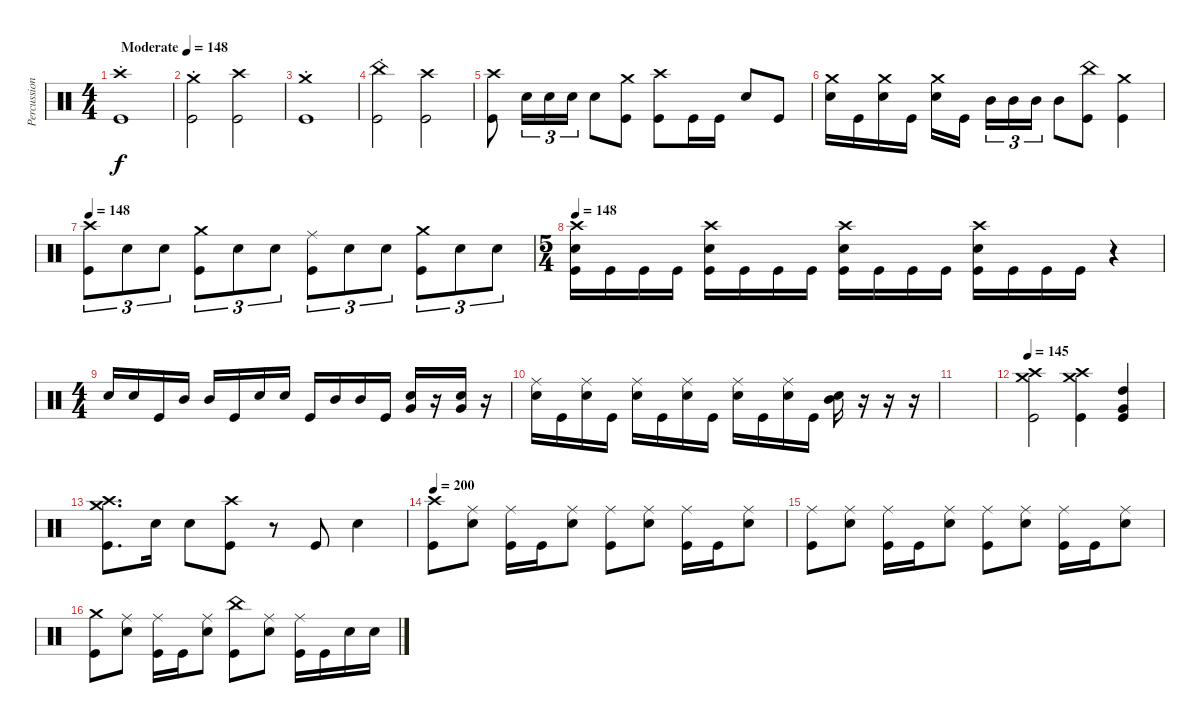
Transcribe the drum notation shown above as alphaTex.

\track ("Percussion" "Percussion") {instrument percussion}
\staff {score}
\articulation defaults
\ts (4 4)
\tempo (148 "Moderate")
\clef neutral
\ks c
("Crash high (hit)"{st} "Kick (hit)"{st}).1{dy f} |
("Crash medium (hit)"{st} "Kick (hit)"{st}).2 ("Crash high (hit)" "Kick (hit)").2 |
("Crash medium (hit)"{st} "Kick (hit)"{st}).1 |
("China (hit)"{st} "Kick (hit)"{st}).2 ("Crash high (hit)" "Kick (hit)").2 |
("Crash high (hit)" "Kick (hit)").8 "Snare (hit) 2".16{tu (3 2)} "Snare (hit) 2".16{tu (3 2)} "Snare (hit) 2".16{tu (3 2)} "Snare (hit) 2".8 ("Crash medium (hit)" "Kick (hit)").8 ("Crash high (hit)" "Kick (hit)").8 "Kick (hit)".16 "Kick (hit)".16 "Snare (hit) 2".8 "Kick (hit)".8 |
("Crash medium (hit)" "Snare (hit) 2").16 "Kick (hit)".16 ("Crash medium (hit)" "Snare (hit) 2").16 "Kick (hit)".16 ("Crash medium (hit)" "Snare (hit) 2").16 "Kick (hit)".16{beam splitsecondary} "Mid Tom (hit)".16{tu (3 2)} "Mid Tom (hit)".16{tu (3 2)} "Mid Tom (hit)".16{tu (3 2)} "Mid Tom (hit)".8 ("China (hit)" "Kick (hit)").8 ("Crash medium (hit)" "Kick (hit)").4 |
\tempo 148
("Crash high (hit)" "Kick (hit)").8{tu (3 2)} "Snare (hit) 2".8{tu (3 2)} "Snare (hit) 2".8{tu (3 2)} ("Crash medium (hit)" "Kick (hit)").8{tu (3 2)} "Snare (hit) 2".8{tu (3 2)} "Snare (hit) 2".8{tu (3 2)} ("Ride (middle)" "Kick (hit)").8{tu (3 2)} "Snare (hit) 2".8{tu (3 2)} "Snare (hit) 2".8{tu (3 2)} ("Crash medium (hit)" "Kick (hit)").8{tu (3 2)} "Snare (hit) 2".8{tu (3 2)} "Snare (hit) 2".8{tu (3 2)} |
\ts (5 4)
\tempo 148
("Crash high (hit)" "Snare (hit) 2" "Kick (hit)").16 "Kick (hit)".16 "Kick (hit)".16 "Kick (hit)".16 ("Crash high (hit)" "Snare (hit) 2" "Kick (hit)").16 "Kick (hit)".16 "Kick (hit)".16 "Kick (hit)".16 ("Crash high (hit)" "Snare (hit) 2" "Kick (hit)").16 "Kick (hit)".16 "Kick (hit)".16 "Kick (hit)".16 ("Crash high (hit)" "Snare (hit) 2" "Kick (hit)").16 "Kick (hit)".16 "Kick (hit)".16 "Kick (hit)".16 r.4 |
\ts (4 4)
"Snare (hit) 2".16 "Snare (hit) 2".16 "Kick (hit)".16 "Mid Tom (hit)".16 "Mid Tom (hit)".16 "Kick (hit)".16 "Snare (hit) 2".16 "Snare (hit) 2".16 "Kick (hit)".16 "Mid Tom (hit)".16 "Mid Tom (hit)".16 "Kick (hit)".16 ("Very Low Tom (hit)" "Snare (hit) 2").16 r.16 ("Very Low Tom (hit)" "Snare (hit) 2").16 r.16 |
("Ride (middle)" "Snare (hit) 2").16 "Kick (hit)".16 ("Ride (middle)" "Snare (hit) 2").16 "Kick (hit)".16 ("Ride (middle)" "Snare (hit) 2").16 "Kick (hit)".16 ("Ride (middle)" "Snare (hit) 2").16 "Kick (hit)".16 ("Ride (middle)" "Snare (hit) 2").16 "Kick (hit)".16 ("Ride (middle)" "Snare (hit) 2").16 "Kick (hit)".16 ("Mid Tom (hit)" "Snare (hit) 2").16 r.16 r.16 r.16 |
|
\tempo 145
("Crash high (hit)" "Crash medium (hit)" "Kick (hit)").2 ("Crash high (hit)" "Crash medium (hit)" "Kick (hit)").4 ("High Tom (hit)" "Very Low Tom (hit)" "Kick (hit)").4 |
("Crash high (hit)" "Crash medium (hit)" "Kick (hit)").8{d} "Snare (hit) 2".16 "Snare (hit) 2".8 ("Crash high (hit)" "Kick (hit)").8 r.8 "Kick (hit)".8 "Snare (hit) 2".4 |
\tempo 200
("Crash high (hit)" "Kick (hit)").8 ("Ride (middle)" "Snare (hit) 2").8 ("Ride (middle)" "Kick (hit)").16 "Kick (hit)".16 ("Ride (middle)" "Snare (hit) 2").8 ("Ride (middle)" "Kick (hit)").8 ("Ride (middle)" "Snare (hit) 2").8 ("Ride (middle)" "Kick (hit)").16 "Kick (hit)".16 ("Ride (middle)" "Snare (hit) 2").8 |
("Ride (middle)" "Kick (hit)").8 ("Ride (middle)" "Snare (hit) 2").8 ("Ride (middle)" "Kick (hit)").16 "Kick (hit)".16 ("Ride (middle)" "Snare (hit) 2").8 ("Ride (middle)" "Kick (hit)").8 ("Ride (middle)" "Snare (hit) 2").8 ("Ride (middle)" "Kick (hit)").16 "Kick (hit)".16 ("Ride (middle)" "Snare (hit) 2").8 |
("Crash medium (hit)" "Kick (hit)").8 ("Ride (middle)" "Snare (hit) 2").8 ("Ride (middle)" "Kick (hit)").16 "Kick (hit)".16 ("Ride (middle)" "Snare (hit) 2").8 ("China (hit)" "Kick (hit)").8 ("Ride (middle)" "Snare (hit) 2").8 ("Ride (middle)" "Kick (hit)").16 "Kick (hit)".16 "Snare (hit) 2".16 "Snare (hit) 2".16
